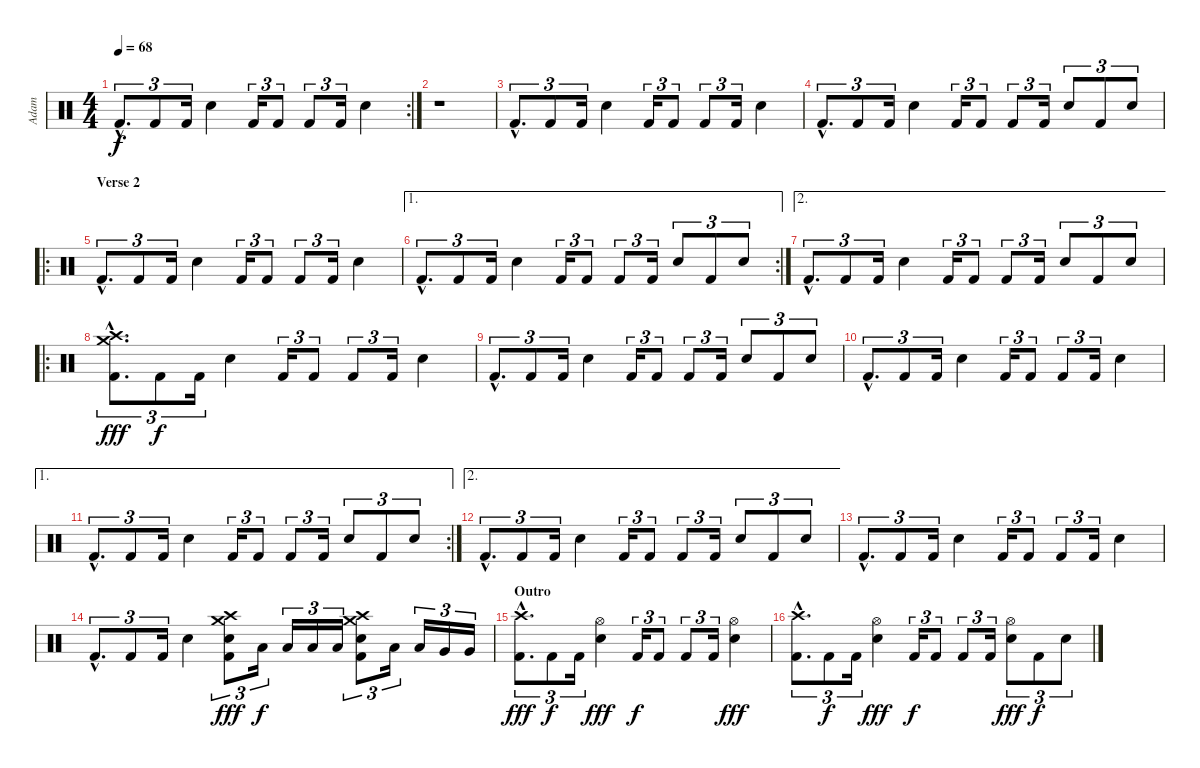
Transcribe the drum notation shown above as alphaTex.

\track ("Adam" "Adam") {instrument percussion}
\staff {score}
\articulation defaults
\rc 2
\ts (4 4)
\tempo 68
\clef neutral
\ks c "Kick (hit) 2"{hac}.8{d tu (3 2) dy f} "Kick (hit) 2".8{tu (3 2)} "Kick (hit) 2".16{tu (3 2)} "Electric Snare (hit)".4 "Kick (hit) 2".16{tu (3 2)} "Kick (hit) 2".8{tu (3 2)} "Kick (hit) 2".8{tu (3 2)} "Kick (hit) 2".16{tu (3 2)} "Electric Snare (hit)".4
|
r.1 |
"Kick (hit) 2"{hac}.8{d tu (3 2)} "Kick (hit) 2".8{tu (3 2)} "Kick (hit) 2".16{tu (3 2)} "Electric Snare (hit)".4 "Kick (hit) 2".16{tu (3 2)} "Kick (hit) 2".8{tu (3 2)} "Kick (hit) 2".8{tu (3 2)} "Kick (hit) 2".16{tu (3 2)} "Electric Snare (hit)".4 |
"Kick (hit) 2"{hac}.8{d tu (3 2)} "Kick (hit) 2".8{tu (3 2)} "Kick (hit) 2".16{tu (3 2)} "Electric Snare (hit)".4 "Kick (hit) 2".16{tu (3 2)} "Kick (hit) 2".8{tu (3 2)} "Kick (hit) 2".8{tu (3 2)} "Kick (hit) 2".16{tu (3 2)} "Electric Snare (hit)".8{tu (3 2)} "Kick (hit) 2".8{tu (3 2)} "Electric Snare (hit)".8{tu (3 2)} |
\ro
\section ("" "Verse 2")
"Kick (hit) 2"{hac}.8{d tu (3 2)} "Kick (hit) 2".8{tu (3 2)} "Kick (hit) 2".16{tu (3 2)} "Electric Snare (hit)".4 "Kick (hit) 2".16{tu (3 2)} "Kick (hit) 2".8{tu (3 2)} "Kick (hit) 2".8{tu (3 2)} "Kick (hit) 2".16{tu (3 2)} "Electric Snare (hit)".4 |
\ae 1
\rc 2 "Kick (hit) 2"{hac}.8{d tu (3 2)} "Kick (hit) 2".8{tu (3 2)} "Kick (hit) 2".16{tu (3 2)} "Electric Snare (hit)".4 "Kick (hit) 2".16{tu (3 2)} "Kick (hit) 2".8{tu (3 2)} "Kick (hit) 2".8{tu (3 2)} "Kick (hit) 2".16{tu (3 2)} "Electric Snare (hit)".8{tu (3 2)} "Kick (hit) 2".8{tu (3 2)} "Electric Snare (hit)".8{tu (3 2)}
|
\ae 2 "Kick (hit) 2"{hac}.8{d tu (3 2)} "Kick (hit) 2".8{tu (3 2)} "Kick (hit) 2".16{tu (3 2)} "Electric Snare (hit)".4 "Kick (hit) 2".16{tu (3 2)} "Kick (hit) 2".8{tu (3 2)} "Kick (hit) 2".8{tu (3 2)} "Kick (hit) 2".16{tu (3 2)} "Electric Snare (hit)".8{tu (3 2)} "Kick (hit) 2".8{tu (3 2)} "Electric Snare (hit)".8{tu (3 2)}
|
\ro
("Crash medium (hit)"{hac} "Crash high (hit)"{hac} "Kick (hit) 2"{hac}).8{d tu (3 2) dy fff} "Kick (hit) 2".8{tu (3 2) dy f} "Kick (hit) 2".16{tu (3 2)} "Electric Snare (hit)".4 "Kick (hit) 2".16{tu (3 2)} "Kick (hit) 2".8{tu (3 2)} "Kick (hit) 2".8{tu (3 2)} "Kick (hit) 2".16{tu (3 2)} "Electric Snare (hit)".4 |
"Kick (hit) 2"{hac}.8{d tu (3 2)} "Kick (hit) 2".8{tu (3 2)} "Kick (hit) 2".16{tu (3 2)} "Electric Snare (hit)".4 "Kick (hit) 2".16{tu (3 2)} "Kick (hit) 2".8{tu (3 2)} "Kick (hit) 2".8{tu (3 2)} "Kick (hit) 2".16{tu (3 2)} "Electric Snare (hit)".8{tu (3 2)} "Kick (hit) 2".8{tu (3 2)} "Electric Snare (hit)".8{tu (3 2)} |
"Kick (hit) 2"{hac}.8{d tu (3 2)} "Kick (hit) 2".8{tu (3 2)} "Kick (hit) 2".16{tu (3 2)} "Electric Snare (hit)".4 "Kick (hit) 2".16{tu (3 2)} "Kick (hit) 2".8{tu (3 2)} "Kick (hit) 2".8{tu (3 2)} "Kick (hit) 2".16{tu (3 2)} "Electric Snare (hit)".4 |
\ae 1
\rc 2 "Kick (hit) 2"{hac}.8{d tu (3 2)} "Kick (hit) 2".8{tu (3 2)} "Kick (hit) 2".16{tu (3 2)} "Electric Snare (hit)".4 "Kick (hit) 2".16{tu (3 2)} "Kick (hit) 2".8{tu (3 2)} "Kick (hit) 2".8{tu (3 2)} "Kick (hit) 2".16{tu (3 2)} "Electric Snare (hit)".8{tu (3 2)} "Kick (hit) 2".8{tu (3 2)} "Electric Snare (hit)".8{tu (3 2)}
|
\ae 2 "Kick (hit) 2"{hac}.8{d tu (3 2)} "Kick (hit) 2".8{tu (3 2)} "Kick (hit) 2".16{tu (3 2)} "Electric Snare (hit)".4 "Kick (hit) 2".16{tu (3 2)} "Kick (hit) 2".8{tu (3 2)} "Kick (hit) 2".8{tu (3 2)} "Kick (hit) 2".16{tu (3 2)} "Electric Snare (hit)".8{tu (3 2)} "Kick (hit) 2".8{tu (3 2)} "Electric Snare (hit)".8{tu (3 2)}
|
"Kick (hit) 2"{hac}.8{d tu (3 2)} "Kick (hit) 2".8{tu (3 2)} "Kick (hit) 2".16{tu (3 2)} "Electric Snare (hit)".4 "Kick (hit) 2".16{tu (3 2)} "Kick (hit) 2".8{tu (3 2)} "Kick (hit) 2".8{tu (3 2)} "Kick (hit) 2".16{tu (3 2)} "Electric Snare (hit)".4 |
"Kick (hit) 2"{hac}.8{d tu (3 2)} "Kick (hit) 2".8{tu (3 2)} "Kick (hit) 2".16{tu (3 2)} "Electric Snare (hit)".4 ("Crash high (hit)" "Crash medium (hit)" "Electric Snare (hit)" "Kick (hit) 2").8{tu (3 2) dy fff} "Low Tom (hit)".16{tu (3 2) dy f} "Low Tom (hit)".16{tu (3 2)} "Low Tom (hit)".16{tu (3 2)} "Low Tom (hit)".16{tu (3 2)} ("Crash high (hit)" "Crash medium (hit)" "Electric Snare (hit)" "Kick (hit) 2").8{tu (3 2)} "Low Tom (hit)".16{tu (3 2)} "Low Tom (hit)".16{tu (3 2)} "Very Low Tom (hit)".16{tu (3 2)} "Very Low Tom (hit)".16{tu (3 2)} |
\section ("" "Outro")
("Crash high (hit)"{hac} "Kick (hit) 2"{hac}).8{d tu (3 2) dy fff} "Kick (hit) 2".8{tu (3 2) dy f} "Kick (hit) 2".16{tu (3 2)} ("Hi-Hat (open)" "Electric Snare (hit)").4{dy fff} "Kick (hit) 2".16{tu (3 2) dy f} "Kick (hit) 2".8{tu (3 2)} "Kick (hit) 2".8{tu (3 2)} "Kick (hit) 2".16{tu (3 2)} ("Hi-Hat (open)" "Electric Snare (hit)").4{dy fff} |
("Crash high (hit)"{hac} "Kick (hit) 2"{hac}).8{d tu (3 2)} "Kick (hit) 2".8{tu (3 2) dy f} "Kick (hit) 2".16{tu (3 2)} ("Hi-Hat (open)" "Electric Snare (hit)").4{dy fff} "Kick (hit) 2".16{tu (3 2) dy f} "Kick (hit) 2".8{tu (3 2)} "Kick (hit) 2".8{tu (3 2)} "Kick (hit) 2".16{tu (3 2)} ("Hi-Hat (open)" "Electric Snare (hit)").8{tu (3 2) dy fff} "Kick (hit) 2".8{tu (3 2) dy f} "Electric Snare (hit)".8{tu (3 2)}
